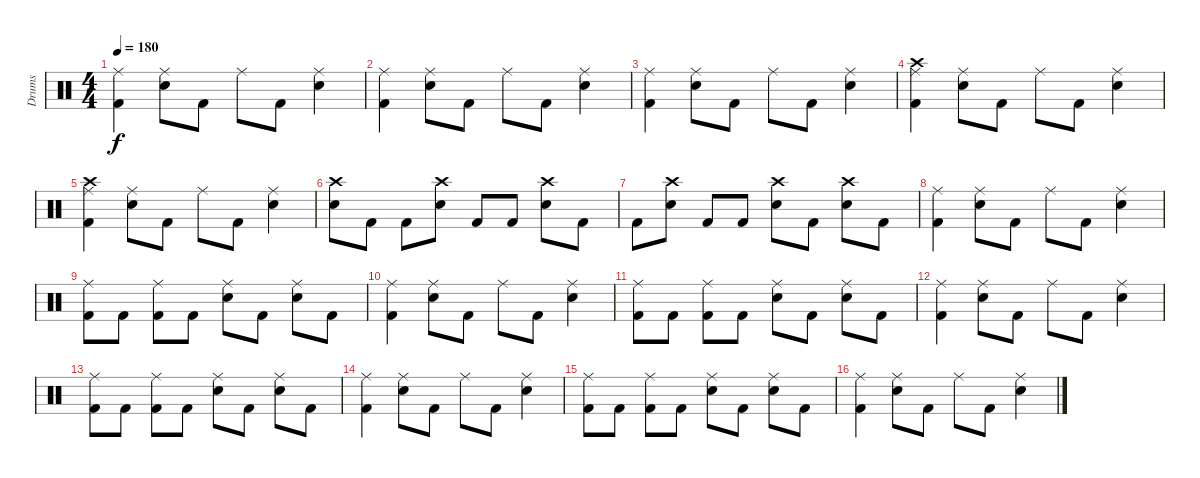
\track ("Drums" "Drums") {instrument percussion}
\staff {score}
\articulation defaults
\ts (4 4)
\tempo 180
\clef neutral
\ks c
("Ride (middle)" "Kick (hit) 2").4{dy f} ("Ride (middle)" "Electric Snare (hit)").8 "Kick (hit) 2".8 "Ride (middle)".8 "Kick (hit) 2".8 ("Ride (middle)" "Electric Snare (hit)").4 |
("Ride (middle)" "Kick (hit) 2").4 ("Ride (middle)" "Electric Snare (hit)").8 "Kick (hit) 2".8 "Ride (middle)".8 "Kick (hit) 2".8 ("Ride (middle)" "Electric Snare (hit)").4 |
("Ride (middle)" "Kick (hit) 2").4 ("Ride (middle)" "Electric Snare (hit)").8 "Kick (hit) 2".8 "Ride (middle)".8 "Kick (hit) 2".8 ("Ride (middle)" "Electric Snare (hit)").4 |
("Ride (middle)" "Crash high (hit)" "Kick (hit) 2").4 ("Ride (middle)" "Electric Snare (hit)").8 "Kick (hit) 2".8 "Ride (middle)".8 "Kick (hit) 2".8 ("Ride (middle)" "Electric Snare (hit)").4 |
("Ride (middle)" "Crash high (hit)" "Kick (hit) 2").4 ("Ride (middle)" "Electric Snare (hit)").8 "Kick (hit) 2".8 "Ride (middle)".8 "Kick (hit) 2".8 ("Ride (middle)" "Electric Snare (hit)").4 |
("Crash high (hit)" "Electric Snare (hit)").8 "Kick (hit) 2".8 "Kick (hit) 2".8 ("Crash high (hit)" "Electric Snare (hit)").8 "Kick (hit) 2".8 "Kick (hit) 2".8 ("Crash high (hit)" "Electric Snare (hit)").8 "Kick (hit) 2".8 |
"Kick (hit) 2".8 ("Crash high (hit)" "Electric Snare (hit)").8 "Kick (hit) 2".8 "Kick (hit) 2".8 ("Crash high (hit)" "Electric Snare (hit)").8 "Kick (hit) 2".8 ("Crash high (hit)" "Electric Snare (hit)").8 "Kick (hit) 2".8 |
("Ride (middle)" "Kick (hit) 2").4 ("Ride (middle)" "Electric Snare (hit)").8 "Kick (hit) 2".8 "Ride (middle)".8 "Kick (hit) 2".8 ("Ride (middle)" "Electric Snare (hit)").4 |
("Ride (middle)" "Kick (hit) 2").8 "Kick (hit) 2".8 ("Ride (middle)" "Kick (hit) 2").8 "Kick (hit) 2".8 ("Ride (middle)" "Electric Snare (hit)").8 "Kick (hit) 2".8 ("Ride (middle)" "Electric Snare (hit)").8 "Kick (hit) 2".8 |
("Ride (middle)" "Kick (hit) 2").4 ("Ride (middle)" "Electric Snare (hit)").8 "Kick (hit) 2".8 "Ride (middle)".8 "Kick (hit) 2".8 ("Ride (middle)" "Electric Snare (hit)").4 |
("Ride (middle)" "Kick (hit) 2").8 "Kick (hit) 2".8 ("Ride (middle)" "Kick (hit) 2").8 "Kick (hit) 2".8 ("Ride (middle)" "Electric Snare (hit)").8 "Kick (hit) 2".8 ("Ride (middle)" "Electric Snare (hit)").8 "Kick (hit) 2".8 |
("Ride (middle)" "Kick (hit) 2").4 ("Ride (middle)" "Electric Snare (hit)").8 "Kick (hit) 2".8 "Ride (middle)".8 "Kick (hit) 2".8 ("Ride (middle)" "Electric Snare (hit)").4 |
("Ride (middle)" "Kick (hit) 2").8 "Kick (hit) 2".8 ("Ride (middle)" "Kick (hit) 2").8 "Kick (hit) 2".8 ("Ride (middle)" "Electric Snare (hit)").8 "Kick (hit) 2".8 ("Ride (middle)" "Electric Snare (hit)").8 "Kick (hit) 2".8 |
("Ride (middle)" "Kick (hit) 2").4 ("Ride (middle)" "Electric Snare (hit)").8 "Kick (hit) 2".8 "Ride (middle)".8 "Kick (hit) 2".8 ("Ride (middle)" "Electric Snare (hit)").4 |
("Ride (middle)" "Kick (hit) 2").8 "Kick (hit) 2".8 ("Ride (middle)" "Kick (hit) 2").8 "Kick (hit) 2".8 ("Ride (middle)" "Electric Snare (hit)").8 "Kick (hit) 2".8 ("Ride (middle)" "Electric Snare (hit)").8 "Kick (hit) 2".8 |
("Ride (middle)" "Kick (hit) 2").4 ("Ride (middle)" "Electric Snare (hit)").8 "Kick (hit) 2".8 "Ride (middle)".8 "Kick (hit) 2".8 ("Ride (middle)" "Electric Snare (hit)").4
